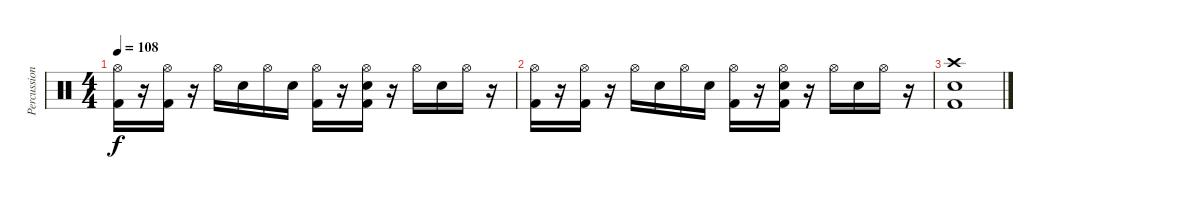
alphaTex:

\track ("Percussion" "Percussion") {instrument percussion}
\staff {score}
\articulation defaults
\ts (4 4)
\tempo 108
\clef neutral
\ks c
("Hi-Hat (open)" "Kick (hit) 2").16{dy f} r.16 ("Hi-Hat (open)" "Kick (hit) 2").16 r.16 "Hi-Hat (open)".16 "Snare (hit) 2".16 "Hi-Hat (open)".16 "Snare (hit) 2".16 ("Hi-Hat (open)" "Kick (hit) 2").16 r.16 ("Hi-Hat (open)" "Snare (hit) 2" "Kick (hit) 2").16 r.16 "Hi-Hat (open)".16 "Snare (hit) 2".16 "Hi-Hat (open)".16 r.16 |
("Hi-Hat (open)" "Kick (hit) 2").16 r.16 ("Hi-Hat (open)" "Kick (hit) 2").16 r.16 "Hi-Hat (open)".16 "Snare (hit) 2".16 "Hi-Hat (open)".16 "Snare (hit) 2".16 ("Hi-Hat (open)" "Kick (hit) 2").16 r.16 ("Hi-Hat (open)" "Snare (hit) 2" "Kick (hit) 2").16 r.16 "Hi-Hat (open)".16 "Snare (hit) 2".16 "Hi-Hat (open)".16 r.16 |
("Crash high (hit)" "Snare (hit) 2" "Kick (hit) 2").1
